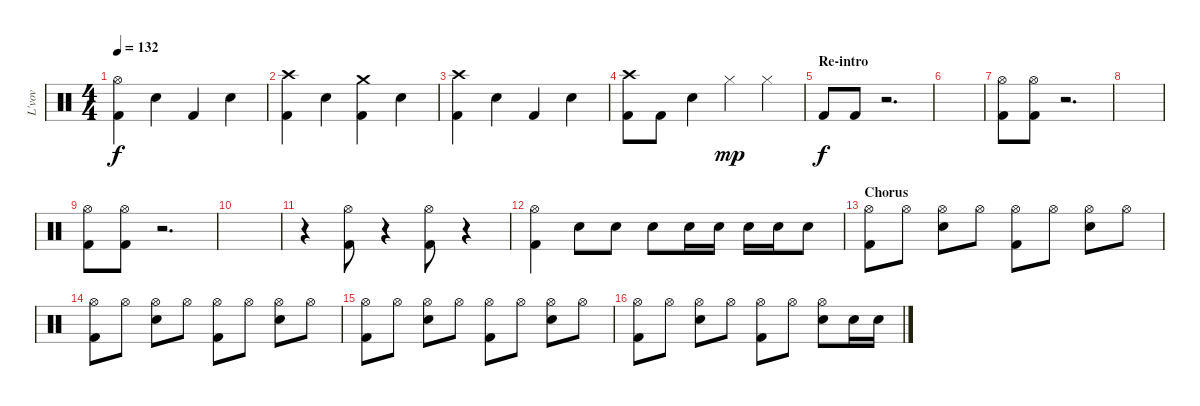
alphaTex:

\track ("L'vov" "L'vov") {instrument percussion}
\staff {score}
\articulation defaults
\ts (4 4)
\tempo 132
\clef neutral
\ks c
("Kick (hit) 2" "Hi-Hat (open)").4{dy f} "Snare (hit) 2".4 "Kick (hit) 2".4 "Snare (hit) 2".4 |
("Kick (hit) 2" "Crash high (hit)").4 "Snare (hit) 2".4 ("Kick (hit) 2" "Crash medium (hit)").4 "Snare (hit) 2".4 |
("Kick (hit) 2" "Crash high (hit)").4 "Snare (hit) 2".4 "Kick (hit) 2".4 "Snare (hit) 2".4 |
("Kick (hit) 2" "Crash high (hit)").8 "Kick (hit) 2".8 "Snare (hit) 2".4 "Hi-Hat (closed)".4{dy mp} "Hi-Hat (closed)".4 |
\section ("" "Re-intro")
"Kick (hit) 2".8{dy f} "Kick (hit) 2".8 r.2{d} |
|
("Hi-Hat (open)" "Kick (hit) 2").8 ("Hi-Hat (open)" "Kick (hit) 2").8 r.2{d} |
|
("Hi-Hat (open)" "Kick (hit) 2").8 ("Hi-Hat (open)" "Kick (hit) 2").8 r.2{d} |
|
r.4 ("Kick (hit) 2" "Hi-Hat (open)").8 r.4 ("Hi-Hat (open)" "Kick (hit) 2").8 r.4 |
("Hi-Hat (open)" "Kick (hit) 2").4 "Electric Snare (hit)".8 "Snare (hit) 2".8 "Snare (hit) 2".8 "Snare (hit) 2".16 "Snare (hit) 2".16 "Snare (hit) 2".16 "Snare (hit) 2".16 "Snare (hit) 2".8 |
\section ("" "Chorus")
("Hi-Hat (open)" "Kick (hit) 2").8 "Hi-Hat (open)".8 ("Hi-Hat (open)" "Snare (hit) 2").8 "Hi-Hat (open)".8 ("Hi-Hat (open)" "Kick (hit) 2").8 "Hi-Hat (open)".8 ("Hi-Hat (open)" "Snare (hit) 2").8 "Hi-Hat (open)".8 |
("Hi-Hat (open)" "Kick (hit) 2").8 "Hi-Hat (open)".8 ("Hi-Hat (open)" "Snare (hit) 2").8 "Hi-Hat (open)".8 ("Hi-Hat (open)" "Kick (hit) 2").8 "Hi-Hat (open)".8 ("Hi-Hat (open)" "Snare (hit) 2").8 "Hi-Hat (open)".8 |
("Hi-Hat (open)" "Kick (hit) 2").8 "Hi-Hat (open)".8 ("Hi-Hat (open)" "Snare (hit) 2").8 "Hi-Hat (open)".8 ("Hi-Hat (open)" "Kick (hit) 2").8 "Hi-Hat (open)".8 ("Hi-Hat (open)" "Snare (hit) 2").8 "Hi-Hat (open)".8 |
("Hi-Hat (open)" "Kick (hit) 2").8 "Hi-Hat (open)".8 ("Hi-Hat (open)" "Snare (hit) 2").8 "Hi-Hat (open)".8 ("Hi-Hat (open)" "Kick (hit) 2").8 "Hi-Hat (open)".8 ("Hi-Hat (open)" "Snare (hit) 2").8 "Snare (hit) 2".16 "Snare (hit) 2".16
